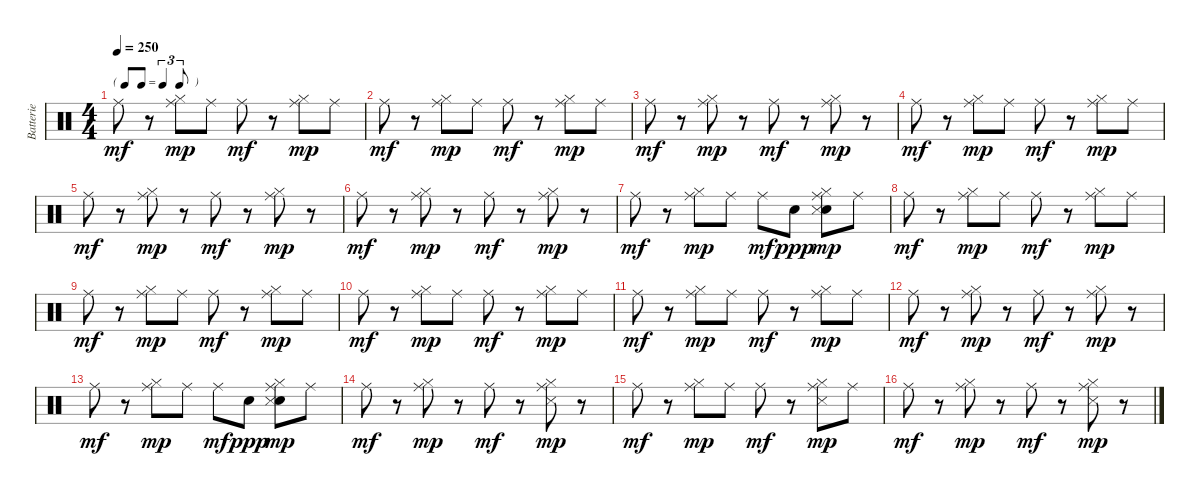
\track ("Batterie" "Batterie") {instrument percussion}
\staff {score}
\articulation defaults
\ts (4 4)
\tf triplet8th
\tempo 250
\clef neutral
\ks c "Ride (middle)".8{dy mf}
r.8 ("Hi-Hat (closed)" "Ride (middle)").8{dy mp} "Ride (middle)".8 "Ride (middle)".8{dy mf} r.8 ("Hi-Hat (closed)" "Ride (middle)").8{dy mp} "Ride (middle)".8 |
"Ride (middle)".8{dy mf} r.8 ("Hi-Hat (closed)" "Ride (middle)").8{dy mp} "Ride (middle)".8 "Ride (middle)".8{dy mf} r.8 ("Hi-Hat (closed)" "Ride (middle)").8{dy mp} "Ride (middle)".8 |
"Ride (middle)".8{dy mf} r.8 ("Hi-Hat (closed)" "Ride (middle)").8{dy mp} r.8 "Ride (middle)".8{dy mf} r.8 ("Hi-Hat (closed)" "Ride (middle)").8{dy mp} r.8 |
"Ride (middle)".8{dy mf} r.8 ("Hi-Hat (closed)" "Ride (middle)").8{dy mp} "Ride (middle)".8 "Ride (middle)".8{dy mf} r.8 ("Hi-Hat (closed)" "Ride (middle)").8{dy mp} "Ride (middle)".8 |
"Ride (middle)".8{dy mf} r.8 ("Hi-Hat (closed)" "Ride (middle)").8{dy mp} r.8 "Ride (middle)".8{dy mf} r.8 ("Hi-Hat (closed)" "Ride (middle)").8{dy mp} r.8 |
"Ride (middle)".8{dy mf} r.8 ("Hi-Hat (closed)" "Ride (middle)").8{dy mp} r.8 "Ride (middle)".8{dy mf} r.8 ("Hi-Hat (closed)" "Ride (middle)").8{dy mp} r.8 |
"Ride (middle)".8{dy mf} r.8 ("Hi-Hat (closed)" "Ride (middle)").8{dy mp} "Ride (middle)".8 "Ride (middle)".8{dy mf} "Snare (hit) 2".8{dy ppp} ("Snare (hit) 2" "Hi-Hat (closed)" "Snare (side stick) 3" "Ride (middle)").8{dy mp} "Ride (middle)".8 |
"Ride (middle)".8{dy mf} r.8 ("Hi-Hat (closed)" "Ride (middle)").8{dy mp} "Ride (middle)".8 "Ride (middle)".8{dy mf} r.8 ("Hi-Hat (closed)" "Ride (middle)").8{dy mp} "Ride (middle)".8 |
"Ride (middle)".8{dy mf} r.8 ("Hi-Hat (closed)" "Ride (middle)").8{dy mp} "Ride (middle)".8 "Ride (middle)".8{dy mf} r.8 ("Hi-Hat (closed)" "Ride (middle)").8{dy mp} "Ride (middle)".8 |
"Ride (middle)".8{dy mf} r.8 ("Hi-Hat (closed)" "Ride (middle)").8{dy mp} "Ride (middle)".8 "Ride (middle)".8{dy mf} r.8 ("Hi-Hat (closed)" "Ride (middle)").8{dy mp} "Ride (middle)".8 |
"Ride (middle)".8{dy mf} r.8 ("Hi-Hat (closed)" "Ride (middle)").8{dy mp} "Ride (middle)".8 "Ride (middle)".8{dy mf} r.8 ("Hi-Hat (closed)" "Ride (middle)").8{dy mp} "Ride (middle)".8 |
"Ride (middle)".8{dy mf} r.8 ("Hi-Hat (closed)" "Ride (middle)").8{dy mp} r.8 "Ride (middle)".8{dy mf} r.8 ("Hi-Hat (closed)" "Ride (middle)").8{dy mp} r.8 |
"Ride (middle)".8{dy mf} r.8 ("Hi-Hat (closed)" "Ride (middle)").8{dy mp} "Ride (middle)".8 "Ride (middle)".8{dy mf} "Snare (hit) 2".8{dy ppp} ("Snare (hit) 2" "Hi-Hat (closed)" "Snare (side stick) 3" "Ride (middle)").8{dy mp} "Ride (middle)".8 |
"Ride (middle)".8{dy mf} r.8 ("Hi-Hat (closed)" "Ride (middle)").8{dy mp} r.8 "Ride (middle)".8{dy mf} r.8 ("Hi-Hat (closed)" "Snare (side stick) 3" "Ride (middle)").8{dy mp} r.8 |
"Ride (middle)".8{dy mf} r.8 ("Hi-Hat (closed)" "Ride (middle)").8{dy mp} "Ride (middle)".8 "Ride (middle)".8{dy mf} r.8 ("Hi-Hat (closed)" "Snare (side stick) 3" "Ride (middle)").8{dy mp} "Ride (middle)".8 |
"Ride (middle)".8{dy mf} r.8 ("Hi-Hat (closed)" "Ride (middle)").8{dy mp} r.8 "Ride (middle)".8{dy mf} r.8 ("Hi-Hat (closed)" "Snare (side stick) 3" "Ride (middle)").8{dy mp} r.8
